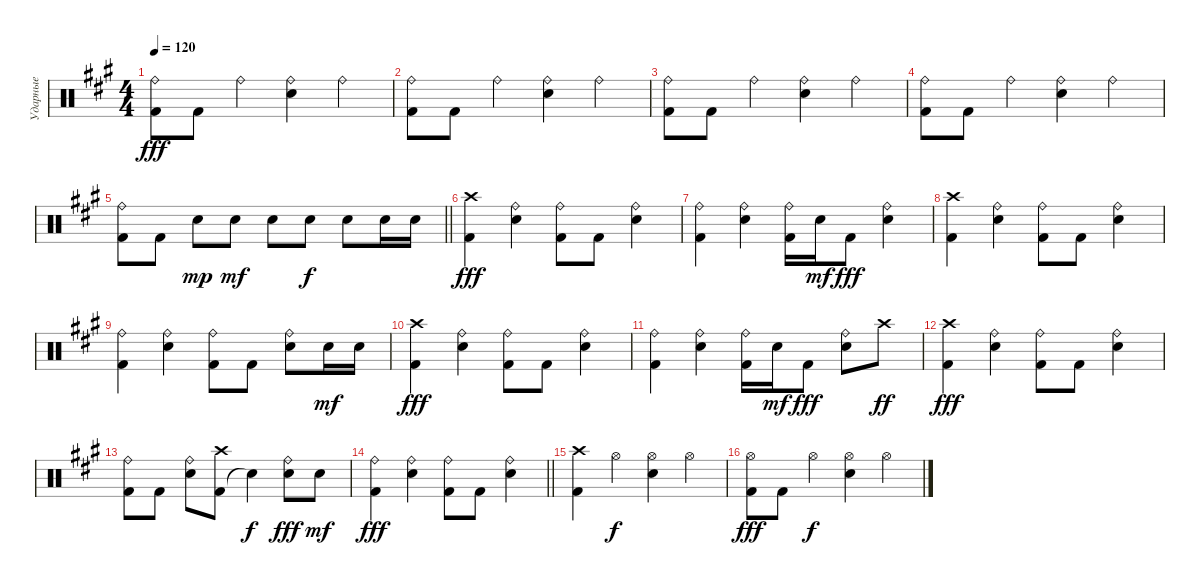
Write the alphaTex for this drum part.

\track ("Ударные" "Ударные") {instrument percussion}
\staff {score}
\articulation defaults
\ts (4 4)
\tempo 120
\clef neutral
\ks a
("Kick (hit) 2" "Ride (bell)").8{dy fff} "Kick (hit) 2".8 "Ride (bell)".4 ("Snare (hit) 2" "Ride (bell)").4 "Ride (bell)".4 |
("Kick (hit) 2" "Ride (bell)").8 "Kick (hit) 2".8 "Ride (bell)".4 ("Snare (hit) 2" "Ride (bell)").4 "Ride (bell)".4 |
("Kick (hit) 2" "Ride (bell)").8 "Kick (hit) 2".8 "Ride (bell)".4 ("Snare (hit) 2" "Ride (bell)").4 "Ride (bell)".4 |
("Kick (hit) 2" "Ride (bell)").8 "Kick (hit) 2".8 "Ride (bell)".4 ("Snare (hit) 2" "Ride (bell)").4 "Ride (bell)".4 |
\barLineRight lightlight
("Kick (hit) 2" "Ride (bell)").8 "Kick (hit) 2".8 "Snare (hit) 2".8{dy mp} "Snare (hit) 2".8{dy mf} "Snare (hit) 2".8 "Snare (hit) 2".8{dy f} "Snare (hit) 2".8 "Snare (hit) 2".16 "Snare (hit) 2".16 |
("Kick (hit) 2" "Crash high (hit)").4{dy fff} ("Snare (hit) 2" "Ride (bell)").4 ("Kick (hit) 2" "Ride (bell)").8 "Kick (hit) 2".8 ("Snare (hit) 2" "Ride (bell)").4 |
("Kick (hit) 2" "Ride (bell)").4 ("Snare (hit) 2" "Ride (bell)").4 ("Kick (hit) 2" "Ride (bell)").16 "Snare (hit) 2".16{dy mf} "Kick (hit) 2".8{dy fff} ("Snare (hit) 2" "Ride (bell)").4 |
("Kick (hit) 2" "Crash high (hit)").4 ("Snare (hit) 2" "Ride (bell)").4 ("Kick (hit) 2" "Ride (bell)").8 "Kick (hit) 2".8 ("Snare (hit) 2" "Ride (bell)").4 |
("Kick (hit) 2" "Ride (bell)").4 ("Snare (hit) 2" "Ride (bell)").4 ("Kick (hit) 2" "Ride (bell)").8 "Kick (hit) 2".8 ("Snare (hit) 2" "Ride (bell)").8 "Snare (hit) 2".16{dy mf} "Snare (hit) 2".16 |
("Kick (hit) 2" "Crash high (hit)").4{dy fff} ("Snare (hit) 2" "Ride (bell)").4 ("Kick (hit) 2" "Ride (bell)").8 "Kick (hit) 2".8 ("Snare (hit) 2" "Ride (bell)").4 |
("Kick (hit) 2" "Ride (bell)").4 ("Snare (hit) 2" "Ride (bell)").4 ("Kick (hit) 2" "Ride (bell)").16 "Snare (hit) 2".16{dy mf} "Kick (hit) 2".8{dy fff} ("Snare (hit) 2" "Ride (bell)").8 "Crash high (hit)".8{dy ff} |
("Kick (hit) 2" "Crash high (hit)").4{dy fff} ("Snare (hit) 2" "Ride (bell)").4 ("Kick (hit) 2" "Ride (bell)").8 "Kick (hit) 2".8 ("Snare (hit) 2" "Ride (bell)").4 |
("Kick (hit) 2" "Ride (bell)").8 "Kick (hit) 2".8 ("Snare (hit) 2" "Ride (bell)").8 ("Kick (hit) 2" "Crash high (hit)").8 "Snare (hit)"{t}.4{dy f} ("Snare (hit) 2" "Ride (bell)").8{dy fff} "Snare (hit) 2".8{dy mf} |
\barLineRight lightlight
("Kick (hit) 2" "Ride (bell)").4{dy fff} ("Snare (hit) 2" "Ride (bell)").4 ("Kick (hit) 2" "Ride (bell)").8 "Kick (hit) 2".8 ("Snare (hit) 2" "Ride (bell)").4 |
("Kick (hit) 2" "Crash high (hit)").4 "Hi-Hat (open)".4{dy f} ("Snare (hit) 2" "Hi-Hat (open)").4 "Hi-Hat (open)".4 |
("Kick (hit) 2" "Hi-Hat (open)").8{dy fff} "Kick (hit) 2".8 "Hi-Hat (open)".4{dy f} ("Snare (hit) 2" "Hi-Hat (open)").4 "Hi-Hat (open)".4
